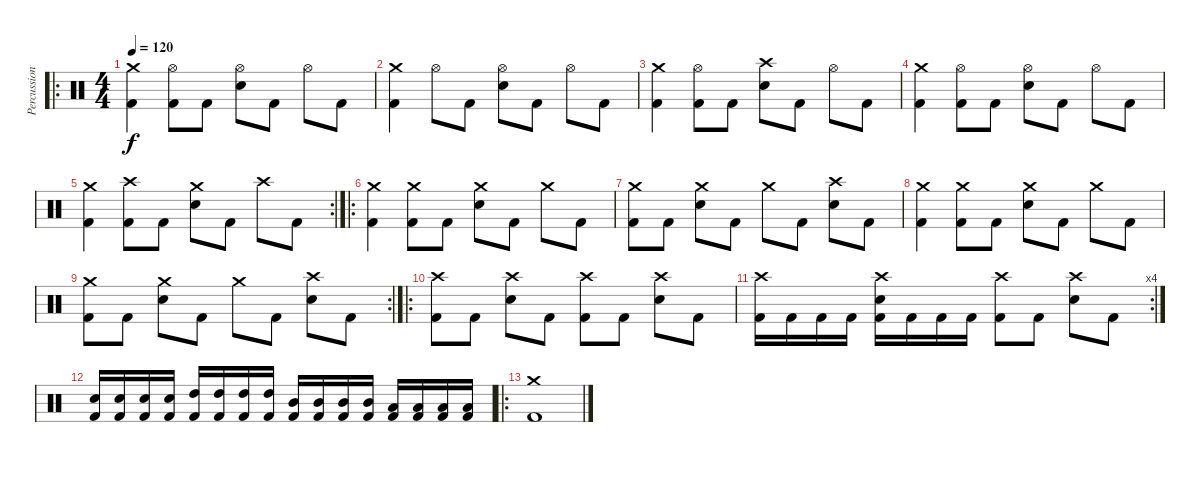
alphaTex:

\track ("Percussion" "Percussion") {instrument percussion}
\staff {score}
\articulation defaults
\ro
\ts (4 4)
\tempo 120
\clef neutral
\ks c
("Crash medium (hit)" "Kick (hit) 2").4{dy f} ("Hi-Hat (open)" "Kick (hit) 2").8 "Kick (hit) 2".8 ("Hi-Hat (open)" "Electric Snare (hit)").8 "Kick (hit) 2".8 "Hi-Hat (open)".8 "Kick (hit) 2".8 |
("Crash medium (hit)" "Kick (hit) 2").4 "Hi-Hat (open)".8 "Kick (hit) 2".8 ("Hi-Hat (open)" "Electric Snare (hit)").8 "Kick (hit) 2".8 "Hi-Hat (open)".8 "Kick (hit) 2".8 |
("Crash medium (hit)" "Kick (hit) 2").4 ("Hi-Hat (open)" "Kick (hit) 2").8 "Kick (hit) 2".8 ("Crash high (hit)" "Electric Snare (hit)").8 "Kick (hit) 2".8 "Hi-Hat (open)".8 "Kick (hit) 2".8 |
("Crash medium (hit)" "Kick (hit) 2").4 ("Hi-Hat (open)" "Kick (hit) 2").8 "Kick (hit) 2".8 ("Hi-Hat (open)" "Electric Snare (hit)").8 "Kick (hit) 2".8 "Hi-Hat (open)".8 "Kick (hit) 2".8 |
\rc 2
("Crash medium (hit)" "Kick (hit) 2").4 ("Crash high (hit)" "Kick (hit) 2").8 "Kick (hit) 2".8 ("Crash medium (hit)" "Electric Snare (hit)").8 "Kick (hit) 2".8 "Crash high (hit)".8 "Kick (hit) 2".8 |
\ro
("Crash medium (hit)" "Kick (hit) 2").4 ("Crash medium (hit)" "Kick (hit) 2").8 "Kick (hit) 2".8 ("Crash medium (hit)" "Electric Snare (hit)").8 "Kick (hit) 2".8 "Crash medium (hit)".8 "Kick (hit) 2".8 |
("Crash medium (hit)" "Kick (hit) 2").8 "Kick (hit) 2".8 ("Crash medium (hit)" "Electric Snare (hit)").8 "Kick (hit) 2".8 "Crash medium (hit)".8 "Kick (hit) 2".8 ("Crash high (hit)" "Electric Snare (hit)").8 "Kick (hit) 2".8 |
("Crash medium (hit)" "Kick (hit) 2").4 ("Crash medium (hit)" "Kick (hit) 2").8 "Kick (hit) 2".8 ("Crash medium (hit)" "Electric Snare (hit)").8 "Kick (hit) 2".8 "Crash medium (hit)".8 "Kick (hit) 2".8 |
\rc 2
("Crash medium (hit)" "Kick (hit) 2").8 "Kick (hit) 2".8 ("Crash medium (hit)" "Electric Snare (hit)").8 "Kick (hit) 2".8 "Crash medium (hit)".8 "Kick (hit) 2".8 ("Crash high (hit)" "Electric Snare (hit)").8 "Kick (hit) 2".8 |
\ro
("Crash high (hit)" "Kick (hit) 2").8 "Kick (hit) 2".8 ("Crash high (hit)" "Electric Snare (hit)").8 "Kick (hit) 2".8 ("Crash high (hit)" "Kick (hit) 2").8 "Kick (hit) 2".8 ("Crash high (hit)" "Electric Snare (hit)").8 "Kick (hit) 2".8 |
\rc 4
("Crash high (hit)" "Kick (hit) 2").16 "Kick (hit) 2".16 "Kick (hit) 2".16 "Kick (hit) 2".16 ("Crash high (hit)" "Electric Snare (hit)" "Kick (hit) 2").16 "Kick (hit) 2".16 "Kick (hit) 2".16 "Kick (hit) 2".16 ("Crash high (hit)" "Kick (hit) 2").8 "Kick (hit) 2".8 ("Crash high (hit)" "Electric Snare (hit)").8 "Kick (hit) 2".8 |
("Electric Snare (hit)" "Kick (hit) 2").16 ("Electric Snare (hit)" "Kick (hit) 2").16 ("Electric Snare (hit)" "Kick (hit) 2").16 ("Electric Snare (hit)" "Kick (hit) 2").16 ("High Tom (hit)" "Kick (hit) 2").16 ("High Tom (hit)" "Kick (hit) 2").16 ("High Tom (hit)" "Kick (hit) 2").16 ("High Tom (hit)" "Kick (hit) 2").16 ("Mid Tom (hit)" "Kick (hit) 2").16 ("Mid Tom (hit)" "Kick (hit) 2").16 ("Mid Tom (hit)" "Kick (hit) 2").16 ("Mid Tom (hit)" "Kick (hit) 2").16 ("Low Tom (hit)" "Kick (hit) 2").16 ("Low Tom (hit)" "Kick (hit) 2").16 ("Low Tom (hit)" "Kick (hit) 2").16 ("Low Tom (hit)" "Kick (hit) 2").16 |
\ro
("Crash medium (hit)" "Kick (hit) 2").1
